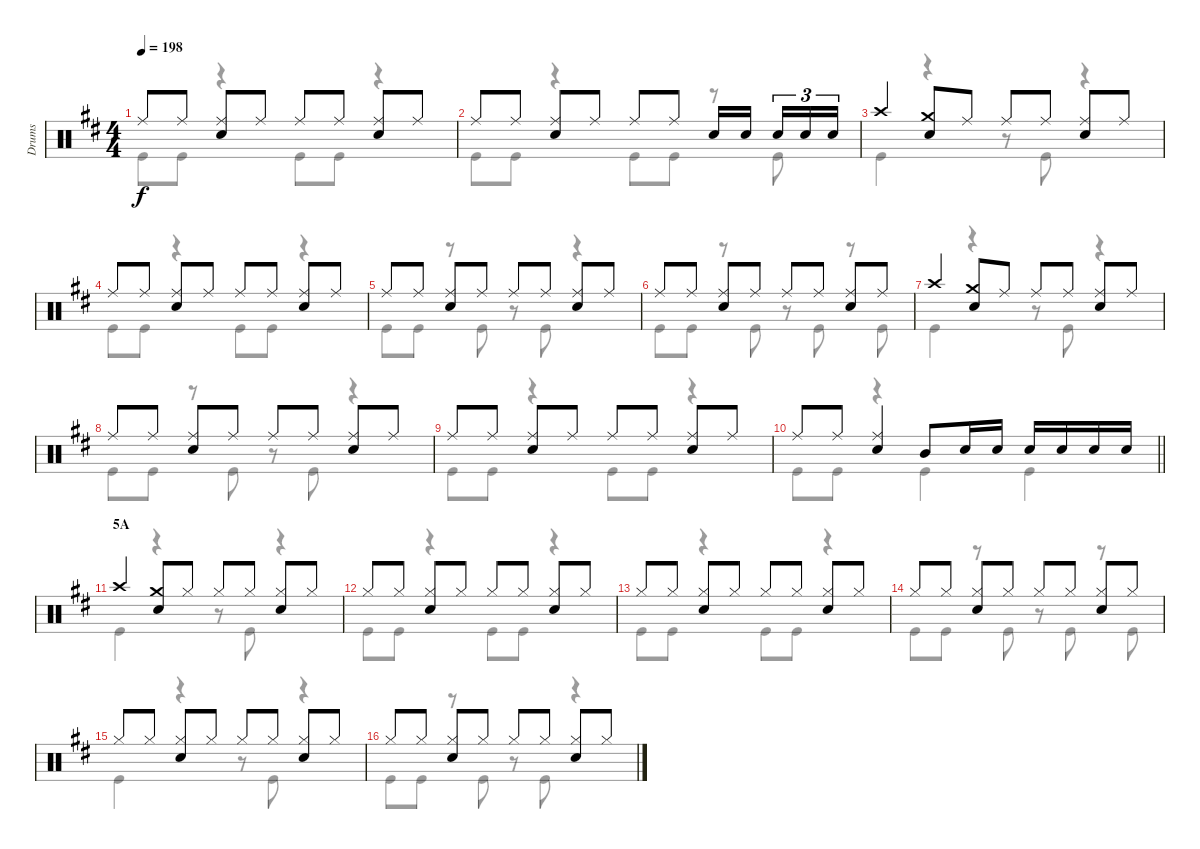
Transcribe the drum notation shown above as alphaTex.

\track ("Drums" "Drums") {instrument percussion}
\staff {score}
\articulation defaults
\voice
\ts (4 4)
\tempo 198
\clef neutral
\ks d "Ride (middle)".8{dy f} "Ride (middle)".8
("Ride (middle)" "Snare (hit) 2").8 "Ride (middle)".8 "Ride (middle)".8 "Ride (middle)".8 ("Ride (middle)" "Snare (hit) 2").8 "Ride (middle)".8 |
"Ride (middle)".8 "Ride (middle)".8 ("Ride (middle)" "Snare (hit) 2").8 "Ride (middle)".8 "Ride (middle)".8 "Ride (middle)".8 "Snare (hit) 2".16 "Snare (hit) 2".16{beam splitsecondary} "Snare (hit) 2".16{tu (3 2)} "Snare (hit) 2".16{tu (3 2)} "Snare (hit) 2".16{tu (3 2)} |
"Crash high (hit)".4 ("Crash medium (hit)" "Snare (hit) 2").8 "Ride (middle)".8 "Ride (middle)".8 "Ride (middle)".8 ("Ride (middle)" "Snare (hit) 2").8 "Ride (middle)".8 |
"Ride (middle)".8 "Ride (middle)".8 ("Ride (middle)" "Snare (hit) 2").8 "Ride (middle)".8 "Ride (middle)".8 "Ride (middle)".8 ("Ride (middle)" "Snare (hit) 2").8 "Ride (middle)".8 |
"Ride (middle)".8 "Ride (middle)".8 ("Ride (middle)" "Snare (hit) 2").8 "Ride (middle)".8 "Ride (middle)".8 "Ride (middle)".8 ("Ride (middle)" "Snare (hit) 2").8 "Ride (middle)".8 |
"Ride (middle)".8 "Ride (middle)".8 ("Ride (middle)" "Snare (hit) 2").8 "Ride (middle)".8 "Ride (middle)".8 "Ride (middle)".8 ("Ride (middle)" "Snare (hit) 2").8 "Ride (middle)".8 |
"Crash high (hit)".4 ("Crash medium (hit)" "Snare (hit) 2").8 "Ride (middle)".8 "Ride (middle)".8 "Ride (middle)".8 ("Ride (middle)" "Snare (hit) 2").8 "Ride (middle)".8 |
"Ride (middle)".8 "Ride (middle)".8 ("Ride (middle)" "Snare (hit) 2").8 "Ride (middle)".8 "Ride (middle)".8 "Ride (middle)".8 ("Ride (middle)" "Snare (hit) 2").8 "Ride (middle)".8 |
"Ride (middle)".8 "Ride (middle)".8 ("Ride (middle)" "Snare (hit) 2").8 "Ride (middle)".8 "Ride (middle)".8 "Ride (middle)".8 ("Ride (middle)" "Snare (hit) 2").8 "Ride (middle)".8 |
\barLineRight lightlight "Ride (middle)".8 "Ride (middle)".8
("Ride (middle)" "Snare (hit) 2").4 "Mid Tom (hit)".8 "Snare (hit) 2".16 "Snare (hit) 2".16 "Snare (hit) 2".16 "Snare (hit) 2".16 "Snare (hit) 2".16 "Snare (hit) 2".16 |
\section ("" "5A")
"Crash high (hit)".4 ("Crash medium (hit)" "Snare (hit) 2").8 "Hi-Hat (closed)".8 "Hi-Hat (closed)".8 "Hi-Hat (closed)".8 ("Hi-Hat (closed)" "Snare (hit) 2").8 "Hi-Hat (closed)".8 |
"Hi-Hat (closed)".8 "Hi-Hat (closed)".8 ("Hi-Hat (closed)" "Snare (hit) 2").8 "Hi-Hat (closed)".8 "Hi-Hat (closed)".8 "Hi-Hat (closed)".8 ("Hi-Hat (closed)" "Snare (hit) 2").8 "Hi-Hat (closed)".8 |
"Hi-Hat (closed)".8 "Hi-Hat (closed)".8 ("Hi-Hat (closed)" "Snare (hit) 2").8 "Hi-Hat (closed)".8 "Hi-Hat (closed)".8 "Hi-Hat (closed)".8 ("Hi-Hat (closed)" "Snare (hit) 2").8 "Hi-Hat (closed)".8 |
"Hi-Hat (closed)".8 "Hi-Hat (closed)".8 ("Hi-Hat (closed)" "Snare (hit) 2").8 "Hi-Hat (closed)".8 "Hi-Hat (closed)".8 "Hi-Hat (closed)".8 ("Hi-Hat (closed)" "Snare (hit) 2").8 "Hi-Hat (closed)".8 |
"Hi-Hat (closed)".8 "Hi-Hat (closed)".8 ("Hi-Hat (closed)" "Snare (hit) 2").8 "Hi-Hat (closed)".8 "Hi-Hat (closed)".8 "Hi-Hat (closed)".8 ("Hi-Hat (closed)" "Snare (hit) 2").8 "Hi-Hat (closed)".8 |
"Hi-Hat (closed)".8 "Hi-Hat (closed)".8 ("Hi-Hat (closed)" "Snare (hit) 2").8 "Hi-Hat (closed)".8 "Hi-Hat (closed)".8 "Hi-Hat (closed)".8 ("Hi-Hat (closed)" "Snare (hit) 2").8 "Hi-Hat (closed)".8
\voice
\clef neutral
\ottava regular
\simile none
\ks d "Kick (hit)".8{dy f} "Kick (hit)".8
r.4 "Kick (hit)".8 "Kick (hit)".8 r.4 |
"Kick (hit)".8 "Kick (hit)".8 r.4 "Kick (hit)".8 "Kick (hit)".8 r.8 "Kick (hit)".8 |
"Kick (hit)".4 r.4 r.8 "Kick (hit)".8 r.4 |
"Kick (hit)".8 "Kick (hit)".8 r.4 "Kick (hit)".8 "Kick (hit)".8 r.4 |
"Kick (hit)".8 "Kick (hit)".8 r.8 "Kick (hit)".8 r.8 "Kick (hit)".8 r.4 |
"Kick (hit)".8 "Kick (hit)".8 r.8 "Kick (hit)".8 r.8 "Kick (hit)".8 r.8 "Kick (hit)".8 |
"Kick (hit)".4 r.4 r.8 "Kick (hit)".8 r.4 |
"Kick (hit)".8 "Kick (hit)".8 r.8 "Kick (hit)".8 r.8 "Kick (hit)".8 r.4 |
"Kick (hit)".8 "Kick (hit)".8 r.4 "Kick (hit)".8 "Kick (hit)".8 r.4 |
\barLineRight lightlight "Kick (hit)".8 "Kick (hit)".8
r.4 "Kick (hit)".4 "Kick (hit)".4 |
"Kick (hit)".4 r.4 r.8 "Kick (hit)".8 r.4 |
"Kick (hit)".8 "Kick (hit)".8 r.4 "Kick (hit)".8 "Kick (hit)".8 r.4 |
"Kick (hit)".8 "Kick (hit)".8 r.4 "Kick (hit)".8 "Kick (hit)".8 r.4 |
"Kick (hit)".8 "Kick (hit)".8 r.8 "Kick (hit)".8 r.8 "Kick (hit)".8 r.8 "Kick (hit)".8 |
"Kick (hit)".4 r.4 r.8 "Kick (hit)".8 r.4 |
"Kick (hit)".8 "Kick (hit)".8 r.8 "Kick (hit)".8 r.8 "Kick (hit)".8 r.4
